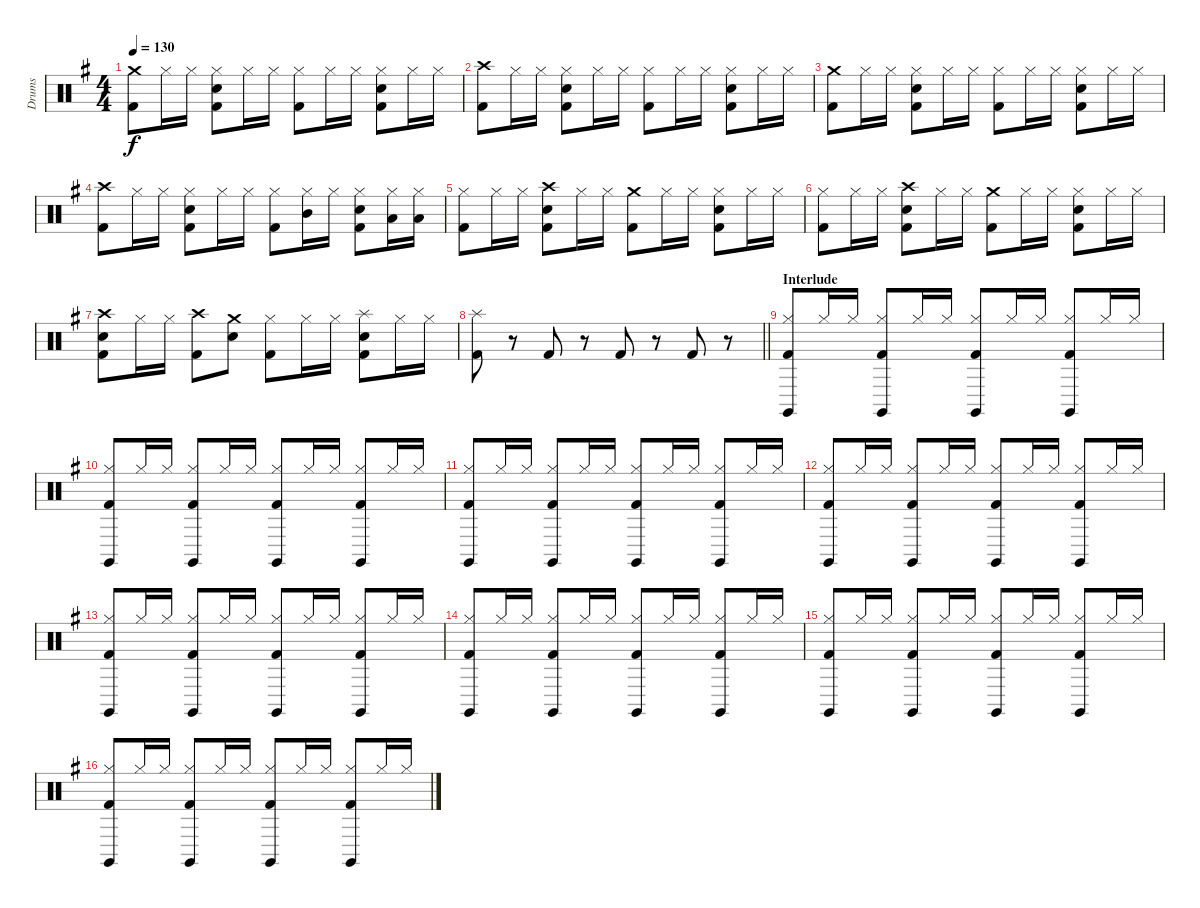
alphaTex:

\track ("Drums" "Drums") {instrument percussion}
\staff {score}
\articulation defaults
\ts (4 4)
\tempo 130
\clef neutral
\ks g
("Crash medium (hit)" "Kick (hit) 2").8{dy f} "Hi-Hat (closed)".16 "Hi-Hat (closed)".16 ("Hi-Hat (closed)" "Electric Snare (hit)" "Kick (hit) 2").8 "Hi-Hat (closed)".16 "Hi-Hat (closed)".16 ("Hi-Hat (closed)" "Kick (hit) 2").8 "Hi-Hat (closed)".16 "Hi-Hat (closed)".16 ("Hi-Hat (closed)" "Electric Snare (hit)" "Kick (hit) 2").8 "Hi-Hat (closed)".16 "Hi-Hat (closed)".16 |
("Crash high (hit)" "Kick (hit) 2").8 "Hi-Hat (closed)".16 "Hi-Hat (closed)".16 ("Hi-Hat (closed)" "Electric Snare (hit)" "Kick (hit) 2").8 "Hi-Hat (closed)".16 "Hi-Hat (closed)".16 ("Hi-Hat (closed)" "Kick (hit) 2").8 "Hi-Hat (closed)".16 "Hi-Hat (closed)".16 ("Hi-Hat (closed)" "Electric Snare (hit)" "Kick (hit) 2").8 "Hi-Hat (closed)".16 "Hi-Hat (closed)".16 |
("Crash medium (hit)" "Kick (hit) 2").8 "Hi-Hat (closed)".16 "Hi-Hat (closed)".16 ("Hi-Hat (closed)" "Electric Snare (hit)" "Kick (hit) 2").8 "Hi-Hat (closed)".16 "Hi-Hat (closed)".16 ("Hi-Hat (closed)" "Kick (hit) 2").8 "Hi-Hat (closed)".16 "Hi-Hat (closed)".16 ("Hi-Hat (closed)" "Electric Snare (hit)" "Kick (hit) 2").8 "Hi-Hat (closed)".16 "Hi-Hat (closed)".16 |
("Crash high (hit)" "Kick (hit) 2").8 "Hi-Hat (closed)".16 "Hi-Hat (closed)".16 ("Hi-Hat (closed)" "Electric Snare (hit)" "Kick (hit) 2").8 "Hi-Hat (closed)".16 "Hi-Hat (closed)".16 ("Hi-Hat (closed)" "Kick (hit) 2").8 ("Hi-Hat (closed)" "Mid Tom (hit)").16 "Hi-Hat (closed)".16 ("Hi-Hat (closed)" "Electric Snare (hit)" "Kick (hit) 2").8 ("Hi-Hat (closed)" "Low Tom (hit)").16 ("Hi-Hat (closed)" "Low Tom (hit)").16 |
("Hi-Hat (closed)" "Kick (hit) 2").8 "Hi-Hat (closed)".16 "Hi-Hat (closed)".16 ("Crash high (hit)" "Electric Snare (hit)" "Kick (hit) 2").8 "Hi-Hat (closed)".16 "Hi-Hat (closed)".16 ("Crash medium (hit)" "Kick (hit) 2").8 "Hi-Hat (closed)".16 "Hi-Hat (closed)".16 ("Hi-Hat (closed)" "Electric Snare (hit)" "Kick (hit) 2").8 "Hi-Hat (closed)".16 "Hi-Hat (closed)".16 |
("Hi-Hat (closed)" "Kick (hit) 2").8 "Hi-Hat (closed)".16 "Hi-Hat (closed)".16 ("Crash high (hit)" "Electric Snare (hit)" "Kick (hit) 2").8 "Hi-Hat (closed)".16 "Hi-Hat (closed)".16 ("Crash medium (hit)" "Kick (hit) 2").8 "Hi-Hat (closed)".16 "Hi-Hat (closed)".16 ("Hi-Hat (closed)" "Electric Snare (hit)" "Kick (hit) 2").8 "Hi-Hat (closed)".16 "Hi-Hat (closed)".16 |
("Crash high (hit)" "Electric Snare (hit)" "Kick (hit) 2").8 "Hi-Hat (closed)".16 "Hi-Hat (closed)".16 ("Crash high (hit)" "Kick (hit) 2").8 ("Crash medium (hit)" "Electric Snare (hit)").8 ("Hi-Hat (closed)" "Kick (hit) 2").8 "Hi-Hat (closed)".16 "Hi-Hat (closed)".16 ("Splash (hit)" "Electric Snare (hit)" "Kick (hit) 2").8 "Hi-Hat (closed)".16 "Hi-Hat (closed)".16 |
\barLineRight lightlight
("Splash (hit)" "Kick (hit) 2").8 r.8 "Kick (hit) 2".8 r.8 "Kick (hit) 2".8 r.8 "Kick (hit) 2".8 r.8 |
\section ("" "Interlude")
("Hi-Hat (closed)" "Claves (hit)" "Kick (hit) 2").8 "Hi-Hat (closed)".16 "Hi-Hat (closed)".16 ("Hi-Hat (closed)" "Claves (hit)" "Kick (hit) 2").8 "Hi-Hat (closed)".16 "Hi-Hat (closed)".16 ("Hi-Hat (closed)" "Claves (hit)" "Kick (hit) 2").8 "Hi-Hat (closed)".16 "Hi-Hat (closed)".16 ("Hi-Hat (closed)" "Claves (hit)" "Kick (hit) 2").8 "Hi-Hat (closed)".16 "Hi-Hat (closed)".16 |
("Hi-Hat (closed)" "Claves (hit)" "Kick (hit) 2").8 "Hi-Hat (closed)".16 "Hi-Hat (closed)".16 ("Hi-Hat (closed)" "Claves (hit)" "Kick (hit) 2").8 "Hi-Hat (closed)".16 "Hi-Hat (closed)".16 ("Hi-Hat (closed)" "Claves (hit)" "Kick (hit) 2").8 "Hi-Hat (closed)".16 "Hi-Hat (closed)".16 ("Hi-Hat (closed)" "Claves (hit)" "Kick (hit) 2").8 "Hi-Hat (closed)".16 "Hi-Hat (closed)".16 |
("Hi-Hat (closed)" "Claves (hit)" "Kick (hit) 2").8 "Hi-Hat (closed)".16 "Hi-Hat (closed)".16 ("Hi-Hat (closed)" "Claves (hit)" "Kick (hit) 2").8 "Hi-Hat (closed)".16 "Hi-Hat (closed)".16 ("Hi-Hat (closed)" "Claves (hit)" "Kick (hit) 2").8 "Hi-Hat (closed)".16 "Hi-Hat (closed)".16 ("Hi-Hat (closed)" "Claves (hit)" "Kick (hit) 2").8 "Hi-Hat (closed)".16 "Hi-Hat (closed)".16 |
("Hi-Hat (closed)" "Claves (hit)" "Kick (hit) 2").8 "Hi-Hat (closed)".16 "Hi-Hat (closed)".16 ("Hi-Hat (closed)" "Claves (hit)" "Kick (hit) 2").8 "Hi-Hat (closed)".16 "Hi-Hat (closed)".16 ("Hi-Hat (closed)" "Claves (hit)" "Kick (hit) 2").8 "Hi-Hat (closed)".16 "Hi-Hat (closed)".16 ("Hi-Hat (closed)" "Claves (hit)" "Kick (hit) 2").8 "Hi-Hat (closed)".16 "Hi-Hat (closed)".16 |
("Hi-Hat (closed)" "Claves (hit)" "Kick (hit) 2").8 "Hi-Hat (closed)".16 "Hi-Hat (closed)".16 ("Hi-Hat (closed)" "Claves (hit)" "Kick (hit) 2").8 "Hi-Hat (closed)".16 "Hi-Hat (closed)".16 ("Hi-Hat (closed)" "Claves (hit)" "Kick (hit) 2").8 "Hi-Hat (closed)".16 "Hi-Hat (closed)".16 ("Hi-Hat (closed)" "Claves (hit)" "Kick (hit) 2").8 "Hi-Hat (closed)".16 "Hi-Hat (closed)".16 |
("Hi-Hat (closed)" "Claves (hit)" "Kick (hit) 2").8 "Hi-Hat (closed)".16 "Hi-Hat (closed)".16 ("Hi-Hat (closed)" "Claves (hit)" "Kick (hit) 2").8 "Hi-Hat (closed)".16 "Hi-Hat (closed)".16 ("Hi-Hat (closed)" "Claves (hit)" "Kick (hit) 2").8 "Hi-Hat (closed)".16 "Hi-Hat (closed)".16 ("Hi-Hat (closed)" "Claves (hit)" "Kick (hit) 2").8 "Hi-Hat (closed)".16 "Hi-Hat (closed)".16 |
("Hi-Hat (closed)" "Claves (hit)" "Kick (hit) 2").8 "Hi-Hat (closed)".16 "Hi-Hat (closed)".16 ("Hi-Hat (closed)" "Claves (hit)" "Kick (hit) 2").8 "Hi-Hat (closed)".16 "Hi-Hat (closed)".16 ("Hi-Hat (closed)" "Claves (hit)" "Kick (hit) 2").8 "Hi-Hat (closed)".16 "Hi-Hat (closed)".16 ("Hi-Hat (closed)" "Claves (hit)" "Kick (hit) 2").8 "Hi-Hat (closed)".16 "Hi-Hat (closed)".16 |
("Hi-Hat (closed)" "Claves (hit)" "Kick (hit) 2").8 "Hi-Hat (closed)".16 "Hi-Hat (closed)".16 ("Hi-Hat (closed)" "Claves (hit)" "Kick (hit) 2").8 "Hi-Hat (closed)".16 "Hi-Hat (closed)".16 ("Hi-Hat (closed)" "Claves (hit)" "Kick (hit) 2").8 "Hi-Hat (closed)".16 "Hi-Hat (closed)".16 ("Hi-Hat (closed)" "Claves (hit)" "Kick (hit) 2").8 "Hi-Hat (closed)".16 "Hi-Hat (closed)".16
